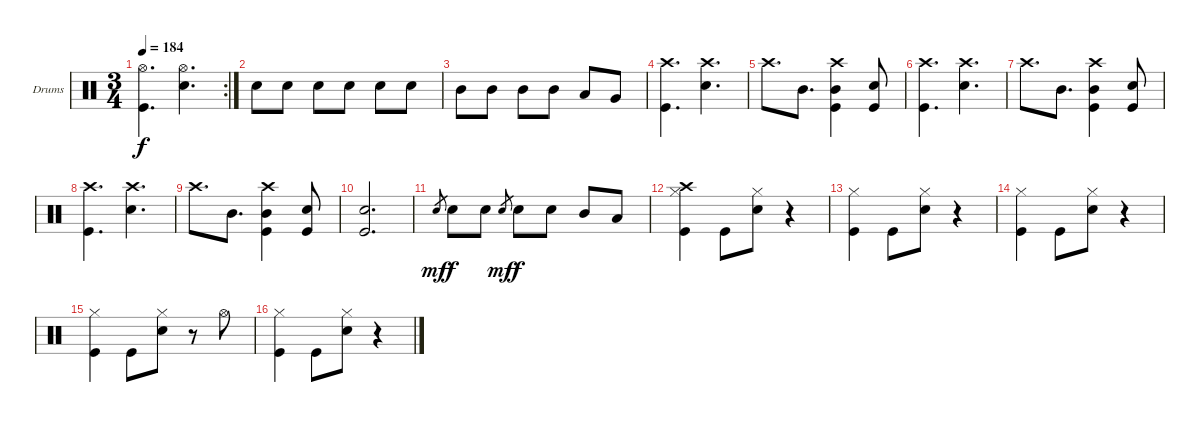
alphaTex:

\bracketExtendMode groupsimilarinstruments
\firstSystemTrackNameOrientation horizontal
\otherSystemsTrackNameOrientation horizontal
\track ("Drumkit" "Drums") {instrument percussion}
\staff {score}
\articulation defaults
\rc 2
\ts (3 4)
\tempo 184
\clef neutral
\ks c
("Hi-Hat (open)" "Kick (hit)").4{d dy f} ("Hi-Hat (open)" "Snare (hit) 2").4{d} |
"Snare (hit) 2".8 "Snare (hit) 2".8 "Snare (hit) 2".8 "Snare (hit) 2".8 "Snare (hit) 2".8 "Snare (hit) 2".8 |
"Mid Tom (hit)".8 "Mid Tom (hit)".8 "Mid Tom (hit)".8 "Mid Tom (hit)".8 "Low Tom (hit)".8 "Very Low Tom (hit)".8 |
("Crash high (hit)" "Kick (hit)").4{d} ("Crash high (hit)" "Snare (hit) 2").4{d} |
"Crash high (hit)".8{d} "Mid Tom (hit)".8{d} ("Crash high (hit)" "Mid Tom (hit)" "Kick (hit)").4 ("Snare (hit) 2" "Kick (hit)").8 |
("Crash high (hit)" "Kick (hit)").4{d} ("Crash high (hit)" "Snare (hit) 2").4{d} |
"Crash high (hit)".8{d} "Mid Tom (hit)".8{d} ("Crash high (hit)" "Mid Tom (hit)" "Kick (hit)").4 ("Snare (hit) 2" "Kick (hit)").8 |
("Crash high (hit)" "Kick (hit)").4{d} ("Crash high (hit)" "Snare (hit) 2").4{d} |
"Crash high (hit)".8{d} "Mid Tom (hit)".8{d} ("Crash high (hit)" "Mid Tom (hit)" "Kick (hit)").4 ("Snare (hit) 2" "Kick (hit)").8 |
("Snare (hit) 2" "Kick (hit)").2{d} |
"Snare (hit) 2".8{gr dy mf} "Snare (hit) 2".8{dy f} "Snare (hit) 2".8 "Snare (hit) 2".8{gr dy mf} "Snare (hit) 2".8{dy f} "Snare (hit) 2".8 "Mid Tom (hit)".8 "Low Tom (hit)".8 |
("Crash high (hit)" "Hi-Hat (closed)" "Kick (hit)").4 "Kick (hit)".8 ("Snare (hit) 2" "Hi-Hat (closed)").8 r.4 |
("Hi-Hat (closed)" "Kick (hit)").4 "Kick (hit)".8 ("Snare (hit) 2" "Hi-Hat (closed)").8 r.4 |
("Hi-Hat (closed)" "Kick (hit)").4 "Kick (hit)".8 ("Snare (hit) 2" "Hi-Hat (closed)").8 r.4 |
("Hi-Hat (closed)" "Kick (hit)").4 "Kick (hit)".8 ("Snare (hit) 2" "Hi-Hat (closed)").8 r.8 "Hi-Hat (open)".8 |
("Hi-Hat (closed)" "Kick (hit)").4 "Kick (hit)".8 ("Snare (hit) 2" "Hi-Hat (closed)").8 r.4
